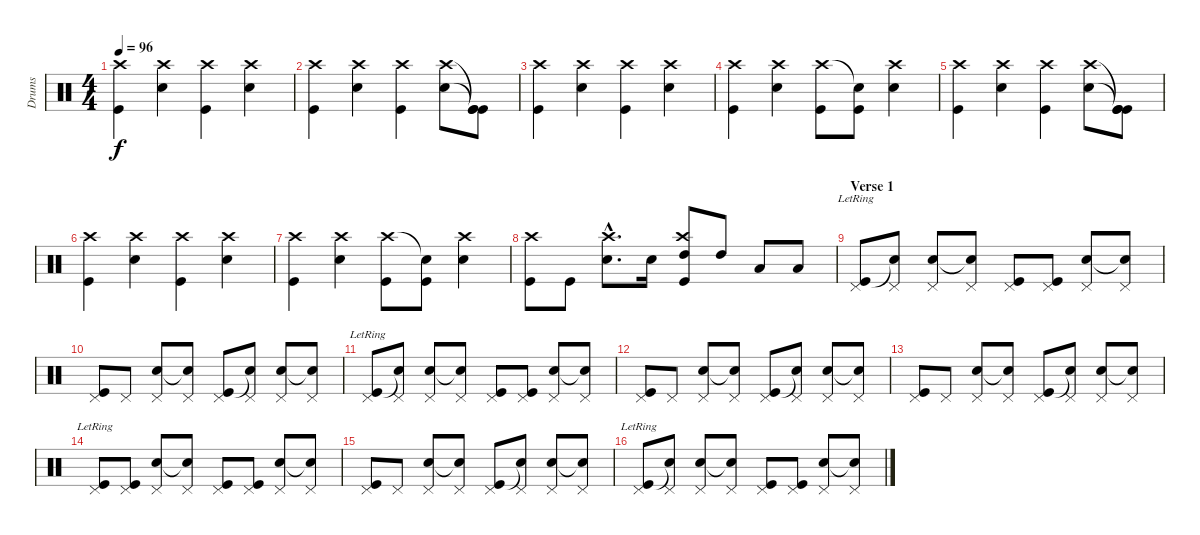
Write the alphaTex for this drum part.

\track ("Drums" "Drums") {instrument percussion}
\staff {score}
\articulation defaults
\ts (4 4)
\tempo 96
\clef neutral
\ks c
("Kick (hit)" "Crash high (hit)").4{dy f} ("Snare (hit) 2" "Crash high (hit)").4 ("Kick (hit)" "Crash high (hit)").4 ("Snare (hit) 2" "Crash high (hit)").4 |
("Kick (hit)" "Crash high (hit)").4 ("Snare (hit) 2" "Crash high (hit)").4 ("Kick (hit)" "Crash high (hit)").4 ("Snare (hit) 2" "Crash high (hit)").8 ("Kick (hit)"{t} "Kick (hit)"{t} "Kick (hit)").8 |
("Kick (hit)" "Crash high (hit)").4 ("Snare (hit) 2" "Crash high (hit)").4 ("Kick (hit)" "Crash high (hit)").4 ("Snare (hit) 2" "Crash high (hit)").4 |
("Kick (hit)" "Crash high (hit)").4 ("Snare (hit) 2" "Crash high (hit)").4 ("Kick (hit)" "Crash high (hit)").8 ("Kick (hit)" "Snare (hit)"{t}).8 ("Snare (hit) 2" "Crash high (hit)").4 |
("Kick (hit)" "Crash high (hit)").4 ("Snare (hit) 2" "Crash high (hit)").4 ("Kick (hit)" "Crash high (hit)").4 ("Snare (hit) 2" "Crash high (hit)").8 ("Kick (hit)"{t} "Kick (hit)"{t} "Kick (hit)").8 |
("Kick (hit)" "Crash high (hit)").4 ("Snare (hit) 2" "Crash high (hit)").4 ("Kick (hit)" "Crash high (hit)").4 ("Snare (hit) 2" "Crash high (hit)").4 |
("Kick (hit)" "Crash high (hit)").4 ("Snare (hit) 2" "Crash high (hit)").4 ("Kick (hit)" "Crash high (hit)").8 ("Kick (hit)" "Snare (hit)"{t}).8 ("Snare (hit) 2" "Crash high (hit)").4 |
("Kick (hit)" "Crash high (hit)").8 "Kick (hit)".8 ("Snare (hit) 2"{hac} "Crash high (hit)"{hac}).8{d} "Snare (hit) 2".16 ("Kick (hit)" "High Tom (hit)" "Crash high (hit)").8 "High Tom (hit)".8 "Low Tom (hit)".8 "Low Tom (hit)".8 |
\section ("" "Verse 1")
("Kick (hit)"{lr} "Pedal Hi-Hat (hit)").8 ("Snare (hit)"{t} "Pedal Hi-Hat (hit)").8 ("Snare (hit) 2" "Pedal Hi-Hat (hit)").8 ("Snare (hit)"{t} "Pedal Hi-Hat (hit)").8 ("Kick (hit)" "Pedal Hi-Hat (hit)").8 ("Kick (hit)" "Pedal Hi-Hat (hit)").8 ("Snare (hit) 2" "Pedal Hi-Hat (hit)").8 ("Snare (hit)"{t} "Pedal Hi-Hat (hit)").8 |
("Kick (hit)" "Pedal Hi-Hat (hit)").8 "Pedal Hi-Hat (hit)".8 ("Snare (hit) 2" "Pedal Hi-Hat (hit)").8 ("Snare (hit)"{t} "Pedal Hi-Hat (hit)").8 ("Kick (hit)" "Pedal Hi-Hat (hit)").8 ("Snare (hit)"{t} "Pedal Hi-Hat (hit)").8 ("Snare (hit) 2" "Pedal Hi-Hat (hit)").8 ("Snare (hit)"{t} "Pedal Hi-Hat (hit)").8 |
("Kick (hit)"{lr} "Pedal Hi-Hat (hit)").8 ("Snare (hit)"{t} "Pedal Hi-Hat (hit)").8 ("Snare (hit) 2" "Pedal Hi-Hat (hit)").8 ("Snare (hit)"{t} "Pedal Hi-Hat (hit)").8 ("Kick (hit)" "Pedal Hi-Hat (hit)").8 ("Kick (hit)" "Pedal Hi-Hat (hit)").8 ("Snare (hit) 2" "Pedal Hi-Hat (hit)").8 ("Snare (hit)"{t} "Pedal Hi-Hat (hit)").8 |
("Kick (hit)" "Pedal Hi-Hat (hit)").8 "Pedal Hi-Hat (hit)".8 ("Snare (hit) 2" "Pedal Hi-Hat (hit)").8 ("Snare (hit)"{t} "Pedal Hi-Hat (hit)").8 ("Kick (hit)" "Pedal Hi-Hat (hit)").8 ("Snare (hit)"{t} "Pedal Hi-Hat (hit)").8 ("Snare (hit) 2" "Pedal Hi-Hat (hit)").8 ("Snare (hit)"{t} "Pedal Hi-Hat (hit)").8 |
("Kick (hit)" "Pedal Hi-Hat (hit)").8 "Pedal Hi-Hat (hit)".8 ("Snare (hit) 2" "Pedal Hi-Hat (hit)").8 ("Snare (hit)"{t} "Pedal Hi-Hat (hit)").8 ("Kick (hit)" "Pedal Hi-Hat (hit)").8 ("Snare (hit)"{t} "Pedal Hi-Hat (hit)").8 ("Snare (hit) 2" "Pedal Hi-Hat (hit)").8 ("Snare (hit)"{t} "Pedal Hi-Hat (hit)").8 |
("Kick (hit)"{lr} "Pedal Hi-Hat (hit)").8 ("Kick (hit)" "Pedal Hi-Hat (hit)").8 ("Snare (hit) 2" "Pedal Hi-Hat (hit)").8 ("Snare (hit)"{t} "Pedal Hi-Hat (hit)").8 ("Kick (hit)" "Pedal Hi-Hat (hit)").8 ("Kick (hit)" "Pedal Hi-Hat (hit)").8 ("Snare (hit) 2" "Pedal Hi-Hat (hit)").8 ("Snare (hit)"{t} "Pedal Hi-Hat (hit)").8 |
("Kick (hit)" "Pedal Hi-Hat (hit)").8 "Pedal Hi-Hat (hit)".8 ("Snare (hit) 2" "Pedal Hi-Hat (hit)").8 ("Snare (hit)"{t} "Pedal Hi-Hat (hit)").8 ("Kick (hit)" "Pedal Hi-Hat (hit)").8 ("Snare (hit)"{t} "Pedal Hi-Hat (hit)").8 ("Snare (hit) 2" "Pedal Hi-Hat (hit)").8 ("Snare (hit)"{t} "Pedal Hi-Hat (hit)").8 |
("Kick (hit)"{lr} "Pedal Hi-Hat (hit)").8 ("Snare (hit)"{t} "Pedal Hi-Hat (hit)").8 ("Snare (hit) 2" "Pedal Hi-Hat (hit)").8 ("Snare (hit)"{t} "Pedal Hi-Hat (hit)").8 ("Kick (hit)" "Pedal Hi-Hat (hit)").8 ("Kick (hit)" "Pedal Hi-Hat (hit)").8 ("Snare (hit) 2" "Pedal Hi-Hat (hit)").8 ("Snare (hit)"{t} "Pedal Hi-Hat (hit)").8
